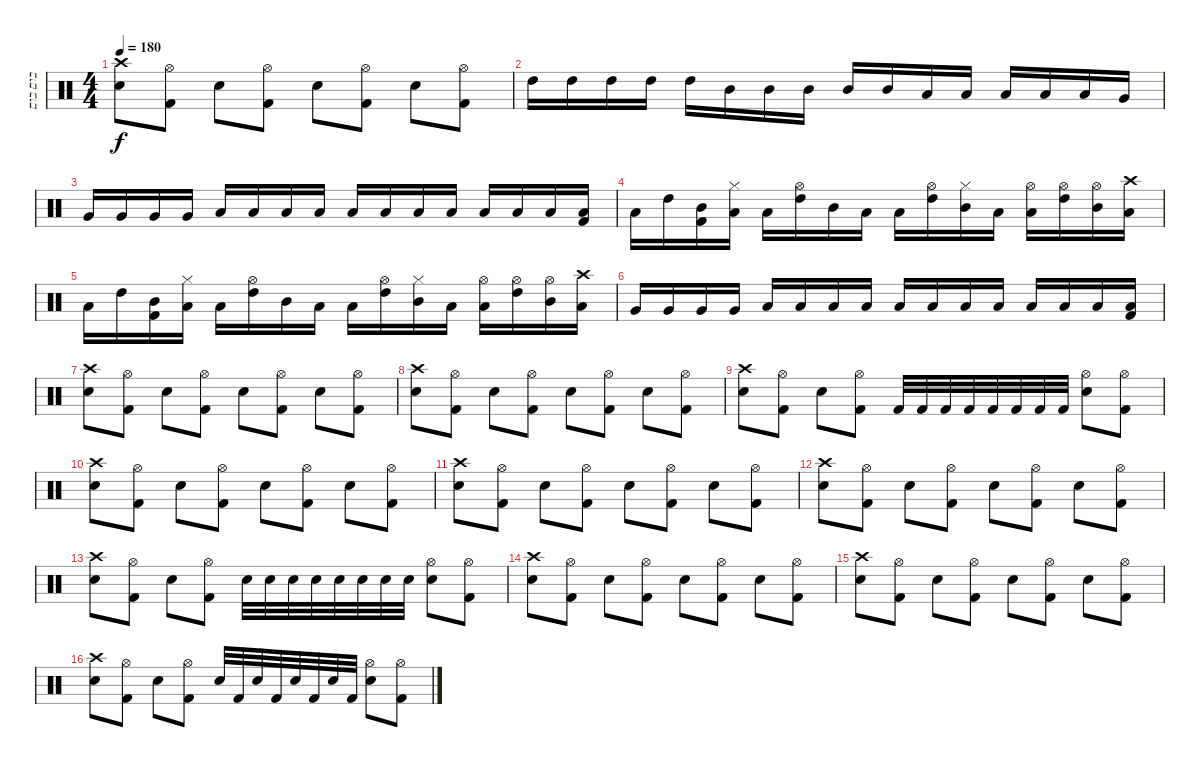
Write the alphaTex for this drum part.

\track ("בום בום" "בום בום") {instrument percussion}
\staff {score}
\articulation defaults
\ts (4 4)
\tempo 180
\clef neutral
\ks c
("Snare (hit) 2" "Crash high (hit)").8{dy f} ("Kick (hit) 2" "Hi-Hat (open)").8 "Snare (hit) 2".8 ("Kick (hit) 2" "Hi-Hat (open)").8 "Snare (hit) 2".8 ("Kick (hit) 2" "Hi-Hat (open)").8 "Snare (hit) 2".8 ("Kick (hit) 2" "Hi-Hat (open)").8 |
"High Tom (hit)".16 "High Tom (hit)".16 "High Tom (hit)".16 "High Tom (hit)".16 "High Tom (hit)".16 "Mid Tom (hit)".16 "Mid Tom (hit)".16 "Mid Tom (hit)".16 "Mid Tom (hit)".16 "Mid Tom (hit)".16 "Low Tom (hit)".16 "Low Tom (hit)".16 "Low Tom (hit)".16 "Low Tom (hit)".16 "Low Tom (hit)".16 "Very Low Tom (hit)".16 |
"Very Low Tom (hit)".16 "Very Low Tom (hit)".16 "Very Low Tom (hit)".16 "Very Low Tom (hit)".16 "Low Floor Tom (hit)".16 "Low Floor Tom (hit)".16 "Low Floor Tom (hit)".16 "Low Floor Tom (hit)".16 "Low Floor Tom (hit)".16 "Low Floor Tom (hit)".16 "Low Floor Tom (hit)".16 "Low Floor Tom (hit)".16 "Low Floor Tom (hit)".16 "Low Floor Tom (hit)".16 "Low Floor Tom (hit)".16 ("Low Floor Tom (hit)" "Kick (hit) 2").16 |
"Low Floor Tom (hit)".16 "High Tom (hit)".16 ("Mid Tom (hit)" "Kick (hit) 2").16 ("Low Tom (hit)" "Hi-Hat (closed)").16 "Low Floor Tom (hit)".16 ("High Tom (hit)" "Hi-Hat (open)").16 "Mid Tom (hit)".16 "Low Tom (hit)".16 "Low Floor Tom (hit)".16 ("High Tom (hit)" "Hi-Hat (open)").16 ("Mid Tom (hit)" "Hi-Hat (closed)").16 "Low Tom (hit)".16 ("Low Floor Tom (hit)" "Hi-Hat (open)").16 ("High Tom (hit)" "Hi-Hat (open)").16 ("Mid Tom (hit)" "Hi-Hat (open)").16 ("Low Tom (hit)" "Crash high (hit)").16 |
"Low Floor Tom (hit)".16 "High Tom (hit)".16 ("Mid Tom (hit)" "Kick (hit) 2").16 ("Low Tom (hit)" "Hi-Hat (closed)").16 "Low Floor Tom (hit)".16 ("High Tom (hit)" "Hi-Hat (open)").16 "Mid Tom (hit)".16 "Low Tom (hit)".16 "Low Floor Tom (hit)".16 ("High Tom (hit)" "Hi-Hat (open)").16 ("Mid Tom (hit)" "Hi-Hat (closed)").16 "Low Tom (hit)".16 ("Low Floor Tom (hit)" "Hi-Hat (open)").16 ("High Tom (hit)" "Hi-Hat (open)").16 ("Mid Tom (hit)" "Hi-Hat (open)").16 ("Low Tom (hit)" "Crash high (hit)").16 |
"Very Low Tom (hit)".16 "Very Low Tom (hit)".16 "Very Low Tom (hit)".16 "Very Low Tom (hit)".16 "Low Floor Tom (hit)".16 "Low Floor Tom (hit)".16 "Low Floor Tom (hit)".16 "Low Floor Tom (hit)".16 "Low Floor Tom (hit)".16 "Low Floor Tom (hit)".16 "Low Floor Tom (hit)".16 "Low Floor Tom (hit)".16 "Low Floor Tom (hit)".16 "Low Floor Tom (hit)".16 "Low Floor Tom (hit)".16 ("Low Floor Tom (hit)" "Kick (hit) 2").16 |
("Snare (hit) 2" "Crash high (hit)").8 ("Kick (hit) 2" "Hi-Hat (open)").8 "Snare (hit) 2".8 ("Kick (hit) 2" "Hi-Hat (open)").8 "Snare (hit) 2".8 ("Kick (hit) 2" "Hi-Hat (open)").8 "Snare (hit) 2".8 ("Kick (hit) 2" "Hi-Hat (open)").8 |
("Snare (hit) 2" "Crash high (hit)").8 ("Kick (hit) 2" "Hi-Hat (open)").8 "Snare (hit) 2".8 ("Kick (hit) 2" "Hi-Hat (open)").8 "Snare (hit) 2".8 ("Kick (hit) 2" "Hi-Hat (open)").8 "Snare (hit) 2".8 ("Kick (hit) 2" "Hi-Hat (open)").8 |
("Snare (hit) 2" "Crash high (hit)").8 ("Kick (hit) 2" "Hi-Hat (open)").8 "Snare (hit) 2".8 ("Kick (hit) 2" "Hi-Hat (open)").8 "Kick (hit) 2".32 "Kick (hit) 2".32 "Kick (hit) 2".32 "Kick (hit) 2".32 "Kick (hit) 2".32 "Kick (hit) 2".32 "Kick (hit) 2".32 "Kick (hit) 2".32 ("Snare (hit) 2" "Hi-Hat (open)").8 ("Kick (hit) 2" "Hi-Hat (open)").8 |
("Snare (hit) 2" "Crash high (hit)").8 ("Kick (hit) 2" "Hi-Hat (open)").8 "Snare (hit) 2".8 ("Kick (hit) 2" "Hi-Hat (open)").8 "Snare (hit) 2".8 ("Kick (hit) 2" "Hi-Hat (open)").8 "Snare (hit) 2".8 ("Kick (hit) 2" "Hi-Hat (open)").8 |
("Snare (hit) 2" "Crash high (hit)").8 ("Kick (hit) 2" "Hi-Hat (open)").8 "Snare (hit) 2".8 ("Kick (hit) 2" "Hi-Hat (open)").8 "Snare (hit) 2".8 ("Kick (hit) 2" "Hi-Hat (open)").8 "Snare (hit) 2".8 ("Kick (hit) 2" "Hi-Hat (open)").8 |
("Snare (hit) 2" "Crash high (hit)").8 ("Kick (hit) 2" "Hi-Hat (open)").8 "Snare (hit) 2".8 ("Kick (hit) 2" "Hi-Hat (open)").8 "Snare (hit) 2".8 ("Kick (hit) 2" "Hi-Hat (open)").8 "Snare (hit) 2".8 ("Kick (hit) 2" "Hi-Hat (open)").8 |
("Snare (hit) 2" "Crash high (hit)").8 ("Kick (hit) 2" "Hi-Hat (open)").8 "Snare (hit) 2".8 ("Kick (hit) 2" "Hi-Hat (open)").8 "Snare (hit) 2".32 "Snare (hit) 2".32 "Snare (hit) 2".32 "Snare (hit) 2".32 "Snare (hit) 2".32 "Snare (hit) 2".32 "Snare (hit) 2".32 "Snare (hit) 2".32 ("Snare (hit) 2" "Hi-Hat (open)").8 ("Kick (hit) 2" "Hi-Hat (open)").8 |
("Snare (hit) 2" "Crash high (hit)").8 ("Kick (hit) 2" "Hi-Hat (open)").8 "Snare (hit) 2".8 ("Kick (hit) 2" "Hi-Hat (open)").8 "Snare (hit) 2".8 ("Kick (hit) 2" "Hi-Hat (open)").8 "Snare (hit) 2".8 ("Kick (hit) 2" "Hi-Hat (open)").8 |
("Snare (hit) 2" "Crash high (hit)").8 ("Kick (hit) 2" "Hi-Hat (open)").8 "Snare (hit) 2".8 ("Kick (hit) 2" "Hi-Hat (open)").8 "Snare (hit) 2".8 ("Kick (hit) 2" "Hi-Hat (open)").8 "Snare (hit) 2".8 ("Kick (hit) 2" "Hi-Hat (open)").8 |
("Snare (hit) 2" "Crash high (hit)").8 ("Kick (hit) 2" "Hi-Hat (open)").8 "Snare (hit) 2".8 ("Kick (hit) 2" "Hi-Hat (open)").8 "Snare (hit) 2".32 "Kick (hit) 2".32 "Snare (hit) 2".32 "Kick (hit) 2".32 "Snare (hit) 2".32 "Kick (hit) 2".32 "Snare (hit) 2".32 "Kick (hit) 2".32 ("Snare (hit) 2" "Hi-Hat (open)").8 ("Kick (hit) 2" "Hi-Hat (open)").8
